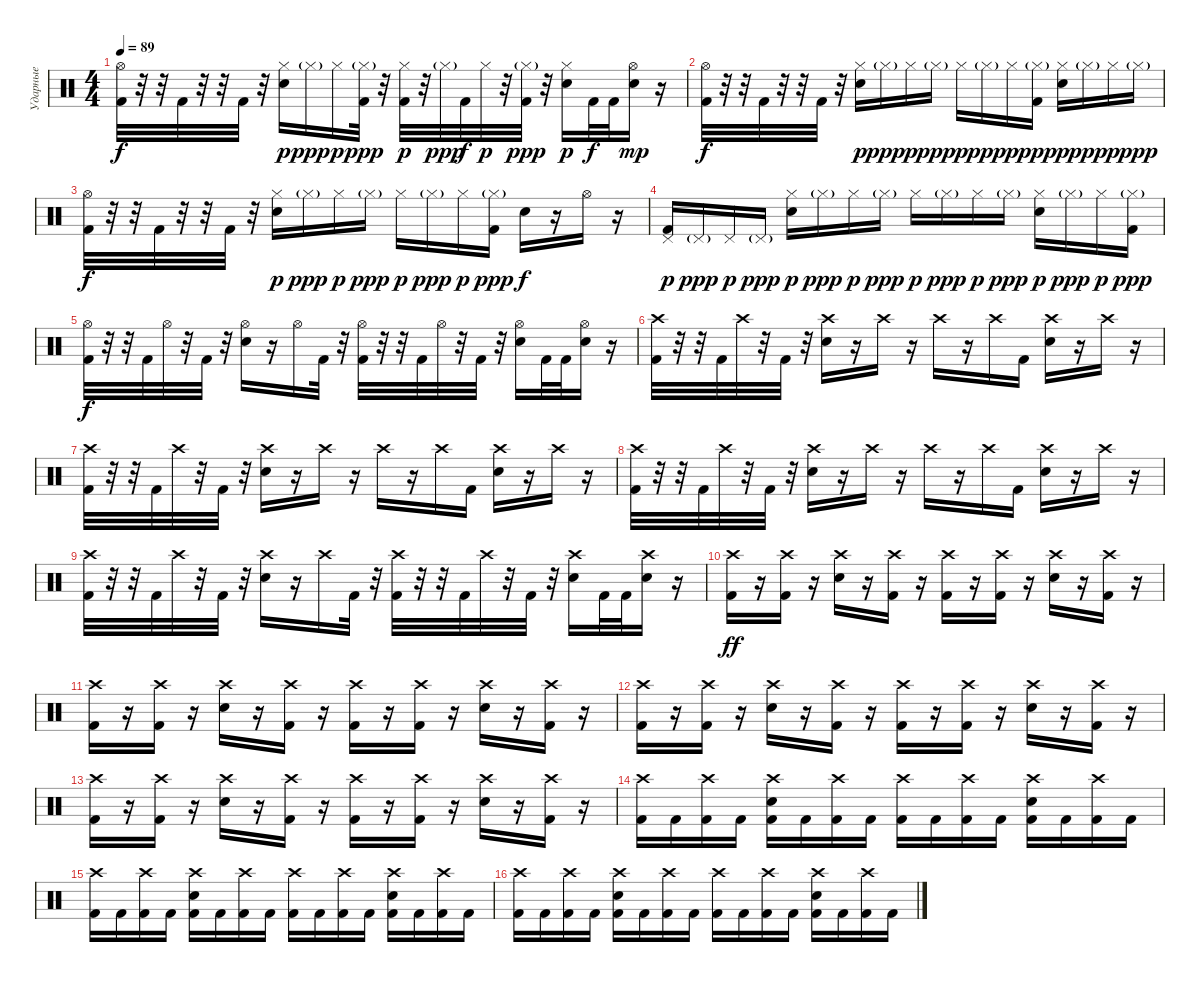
\track ("Ударные" "Ударные") {instrument percussion}
\staff {score}
\articulation defaults
\ts (4 4)
\tempo 89
\clef neutral
\ks c
("Hi-Hat (open)" "Kick (hit) 2").32{dy f} r.32 r.32 "Kick (hit) 2".32 r.32 r.32 "Kick (hit) 2".32 r.32 ("Hi-Hat (closed)" "Snare (hit) 2").16{dy p} "Hi-Hat (closed)"{g}.16{dy ppp} "Hi-Hat (closed)".16{dy p} ("Hi-Hat (closed)"{g} "Kick (hit) 2").32{dy ppp} r.32 ("Hi-Hat (closed)" "Kick (hit) 2").32{dy p} r.32 "Hi-Hat (closed)"{g}.32{dy ppp} "Kick (hit) 2".32{dy f} "Hi-Hat (closed)".32{dy p} r.32 ("Hi-Hat (closed)"{g} "Kick (hit) 2").32{dy ppp} r.32 ("Hi-Hat (closed)" "Snare (hit) 2").16{dy p} "Kick (hit) 2".32{dy f} "Kick (hit) 2".32 ("Hi-Hat (open)" "Snare (hit) 2").16{dy mp} r.16 |
("Hi-Hat (open)" "Kick (hit) 2").32{dy f} r.32 r.32 "Kick (hit) 2".32 r.32 r.32 "Kick (hit) 2".32 r.32 ("Hi-Hat (closed)" "Snare (hit) 2").16{dy p} "Hi-Hat (closed)"{g}.16{dy ppp} "Hi-Hat (closed)".16{dy p} "Hi-Hat (closed)"{g}.16{dy ppp} "Hi-Hat (closed)".16{dy p} "Hi-Hat (closed)"{g}.16{dy ppp} "Hi-Hat (closed)".16{dy p} ("Hi-Hat (closed)"{g} "Kick (hit) 2").16{dy ppp} ("Hi-Hat (closed)" "Snare (hit) 2").16{dy p} "Hi-Hat (closed)"{g}.16{dy ppp} "Hi-Hat (closed)".16{dy p} "Hi-Hat (closed)"{g}.16{dy ppp} |
("Hi-Hat (open)" "Kick (hit) 2").32{dy f} r.32 r.32 "Kick (hit) 2".32 r.32 r.32 "Kick (hit) 2".32 r.32 ("Hi-Hat (closed)" "Snare (hit) 2").16{dy p} "Hi-Hat (closed)"{g}.16{dy ppp} "Hi-Hat (closed)".16{dy p} "Hi-Hat (closed)"{g}.16{dy ppp} "Hi-Hat (closed)".16{dy p} "Hi-Hat (closed)"{g}.16{dy ppp} "Hi-Hat (closed)".16{dy p} ("Hi-Hat (closed)"{g} "Kick (hit) 2").16{dy ppp} "Snare (hit) 2".16{dy f} r.16 "Hi-Hat (open)".16 r.16 |
("Pedal Hi-Hat (hit)" "Kick (hit) 2").16{dy p} "Pedal Hi-Hat (hit)"{g}.16{dy ppp} "Pedal Hi-Hat (hit)".16{dy p} "Pedal Hi-Hat (hit)"{g}.16{dy ppp} ("Hi-Hat (closed)" "Snare (hit) 2").16{dy p} "Hi-Hat (closed)"{g}.16{dy ppp} "Hi-Hat (closed)".16{dy p} "Hi-Hat (closed)"{g}.16{dy ppp} "Hi-Hat (closed)".16{dy p} "Hi-Hat (closed)"{g}.16{dy ppp} "Hi-Hat (closed)".16{dy p} "Hi-Hat (closed)"{g}.16{dy ppp} ("Hi-Hat (closed)" "Snare (hit) 2").16{dy p} "Hi-Hat (closed)"{g}.16{dy ppp} "Hi-Hat (closed)".16{dy p} ("Hi-Hat (closed)"{g} "Kick (hit) 2").16{dy ppp} |
("Hi-Hat (open)" "Kick (hit) 2").32{dy f} r.32 r.32 "Kick (hit) 2".32 "Hi-Hat (open)".32 r.32 "Kick (hit) 2".32 r.32 ("Hi-Hat (open)" "Snare (hit) 2").16 r.16 "Hi-Hat (open)".16 "Kick (hit) 2".32 r.32 ("Hi-Hat (open)" "Kick (hit) 2").32 r.32 r.32 "Kick (hit) 2".32 "Hi-Hat (open)".32 r.32 "Kick (hit) 2".32 r.32 ("Hi-Hat (open)" "Snare (hit) 2").16 "Kick (hit) 2".32 "Kick (hit) 2".32 ("Hi-Hat (open)" "Snare (hit) 2").16 r.16 |
("Crash high (hit)" "Kick (hit) 2").32 r.32 r.32 "Kick (hit) 2".32 "Crash high (hit)".32 r.32 "Kick (hit) 2".32 r.32 ("Crash high (hit)" "Snare (hit) 2").16 r.16 "Crash high (hit)".16 r.16 "Crash high (hit)".16 r.16 "Crash high (hit)".16 "Kick (hit) 2".16 ("Crash high (hit)" "Snare (hit) 2").16 r.16 "Crash high (hit)".16 r.16 |
("Crash high (hit)" "Kick (hit) 2").32 r.32 r.32 "Kick (hit) 2".32 "Crash high (hit)".32 r.32 "Kick (hit) 2".32 r.32 ("Crash high (hit)" "Snare (hit) 2").16 r.16 "Crash high (hit)".16 r.16 "Crash high (hit)".16 r.16 "Crash high (hit)".16 "Kick (hit) 2".16 ("Crash high (hit)" "Snare (hit) 2").16 r.16 "Crash high (hit)".16 r.16 |
("Crash high (hit)" "Kick (hit) 2").32 r.32 r.32 "Kick (hit) 2".32 "Crash high (hit)".32 r.32 "Kick (hit) 2".32 r.32 ("Crash high (hit)" "Snare (hit) 2").16 r.16 "Crash high (hit)".16 r.16 "Crash high (hit)".16 r.16 "Crash high (hit)".16 "Kick (hit) 2".16 ("Crash high (hit)" "Snare (hit) 2").16 r.16 "Crash high (hit)".16 r.16 |
("Crash high (hit)" "Kick (hit) 2").32 r.32 r.32 "Kick (hit) 2".32 "Crash high (hit)".32 r.32 "Kick (hit) 2".32 r.32 ("Crash high (hit)" "Snare (hit) 2").16 r.16 "Crash high (hit)".16 "Kick (hit) 2".32 r.32 ("Crash high (hit)" "Kick (hit) 2").32 r.32 r.32 "Kick (hit) 2".32 "Crash high (hit)".32 r.32 "Kick (hit) 2".32 r.32 ("Crash high (hit)" "Snare (hit) 2").16 "Kick (hit) 2".32 "Kick (hit) 2".32 ("Crash high (hit)" "Snare (hit) 2").16 r.16 |
("Crash high (hit)" "Kick (hit) 2").16{dy ff} r.16 ("Crash high (hit)" "Kick (hit) 2").16 r.16 ("Crash high (hit)" "Snare (hit) 2").16 r.16 ("Crash high (hit)" "Kick (hit) 2").16 r.16 ("Crash high (hit)" "Kick (hit) 2").16 r.16 ("Crash high (hit)" "Kick (hit) 2").16 r.16 ("Crash high (hit)" "Snare (hit) 2").16 r.16 ("Crash high (hit)" "Kick (hit) 2").16 r.16 |
("Crash high (hit)" "Kick (hit) 2").16 r.16 ("Crash high (hit)" "Kick (hit) 2").16 r.16 ("Crash high (hit)" "Snare (hit) 2").16 r.16 ("Crash high (hit)" "Kick (hit) 2").16 r.16 ("Crash high (hit)" "Kick (hit) 2").16 r.16 ("Crash high (hit)" "Kick (hit) 2").16 r.16 ("Crash high (hit)" "Snare (hit) 2").16 r.16 ("Crash high (hit)" "Kick (hit) 2").16 r.16 |
("Crash high (hit)" "Kick (hit) 2").16 r.16 ("Crash high (hit)" "Kick (hit) 2").16 r.16 ("Crash high (hit)" "Snare (hit) 2").16 r.16 ("Crash high (hit)" "Kick (hit) 2").16 r.16 ("Crash high (hit)" "Kick (hit) 2").16 r.16 ("Crash high (hit)" "Kick (hit) 2").16 r.16 ("Crash high (hit)" "Snare (hit) 2").16 r.16 ("Crash high (hit)" "Kick (hit) 2").16 r.16 |
("Crash high (hit)" "Kick (hit) 2").16 r.16 ("Crash high (hit)" "Kick (hit) 2").16 r.16 ("Crash high (hit)" "Snare (hit) 2").16 r.16 ("Crash high (hit)" "Kick (hit) 2").16 r.16 ("Crash high (hit)" "Kick (hit) 2").16 r.16 ("Crash high (hit)" "Kick (hit) 2").16 r.16 ("Crash high (hit)" "Snare (hit) 2").16 r.16 ("Crash high (hit)" "Kick (hit) 2").16 r.16 |
("Crash high (hit)" "Kick (hit) 2").16 "Kick (hit) 2".16 ("Crash high (hit)" "Kick (hit) 2").16 "Kick (hit) 2".16 ("Crash high (hit)" "Kick (hit) 2" "Snare (hit) 2").16 "Kick (hit) 2".16 ("Crash high (hit)" "Kick (hit) 2").16 "Kick (hit) 2".16 ("Crash high (hit)" "Kick (hit) 2").16 "Kick (hit) 2".16 ("Crash high (hit)" "Kick (hit) 2").16 "Kick (hit) 2".16 ("Crash high (hit)" "Kick (hit) 2" "Snare (hit) 2").16 "Kick (hit) 2".16 ("Crash high (hit)" "Kick (hit) 2").16 "Kick (hit) 2".16 |
("Crash high (hit)" "Kick (hit) 2").16 "Kick (hit) 2".16 ("Crash high (hit)" "Kick (hit) 2").16 "Kick (hit) 2".16 ("Crash high (hit)" "Kick (hit) 2" "Snare (hit) 2").16 "Kick (hit) 2".16 ("Crash high (hit)" "Kick (hit) 2").16 "Kick (hit) 2".16 ("Crash high (hit)" "Kick (hit) 2").16 "Kick (hit) 2".16 ("Crash high (hit)" "Kick (hit) 2").16 "Kick (hit) 2".16 ("Crash high (hit)" "Kick (hit) 2" "Snare (hit) 2").16 "Kick (hit) 2".16 ("Crash high (hit)" "Kick (hit) 2").16 "Kick (hit) 2".16 |
("Crash high (hit)" "Kick (hit) 2").16 "Kick (hit) 2".16 ("Crash high (hit)" "Kick (hit) 2").16 "Kick (hit) 2".16 ("Crash high (hit)" "Kick (hit) 2" "Snare (hit) 2").16 "Kick (hit) 2".16 ("Crash high (hit)" "Kick (hit) 2").16 "Kick (hit) 2".16 ("Crash high (hit)" "Kick (hit) 2").16 "Kick (hit) 2".16 ("Crash high (hit)" "Kick (hit) 2").16 "Kick (hit) 2".16 ("Crash high (hit)" "Kick (hit) 2" "Snare (hit) 2").16 "Kick (hit) 2".16 ("Crash high (hit)" "Kick (hit) 2").16 "Kick (hit) 2".16
